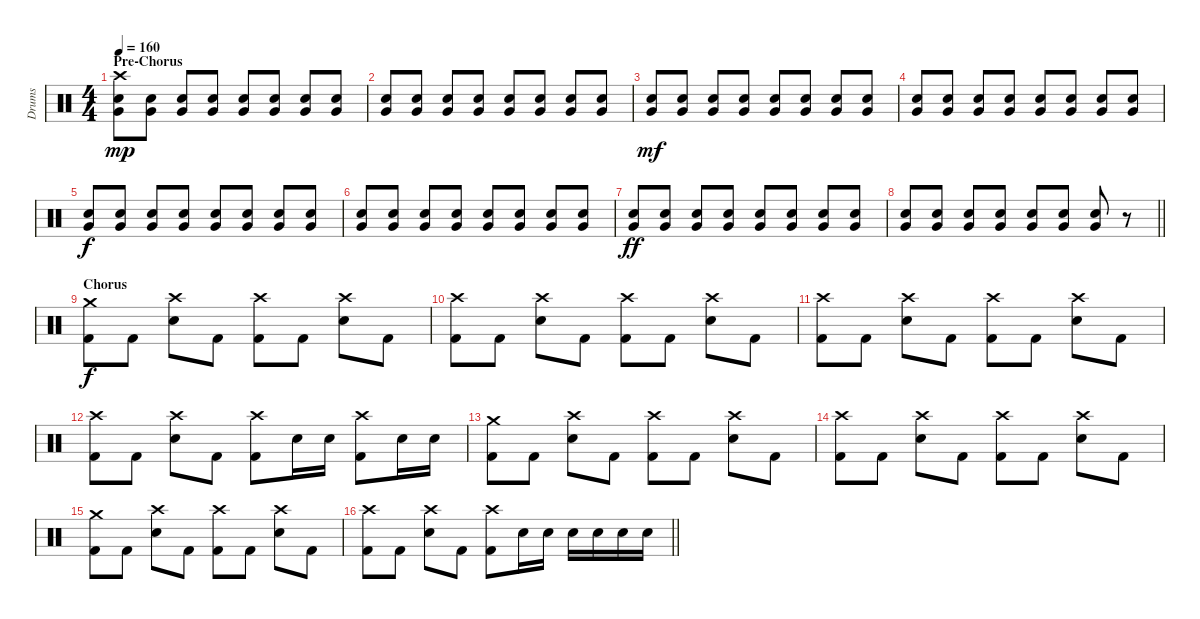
\track ("Drums" "Drums") {instrument percussion}
\staff {score}
\articulation defaults
\ts (4 4)
\section ("" "Pre-Chorus")
\tempo 160
\clef neutral
\ks c
("Crash high (hit)" "Electric Snare (hit)" "Very Low Tom (hit)").8{dy mp} ("Electric Snare (hit)" "Very Low Tom (hit)").8 ("Electric Snare (hit)" "Very Low Tom (hit)").8 ("Electric Snare (hit)" "Very Low Tom (hit)").8 ("Electric Snare (hit)" "Very Low Tom (hit)").8 ("Electric Snare (hit)" "Very Low Tom (hit)").8 ("Electric Snare (hit)" "Very Low Tom (hit)").8 ("Electric Snare (hit)" "Very Low Tom (hit)").8 |
("Electric Snare (hit)" "Very Low Tom (hit)").8 ("Electric Snare (hit)" "Very Low Tom (hit)").8 ("Electric Snare (hit)" "Very Low Tom (hit)").8 ("Electric Snare (hit)" "Very Low Tom (hit)").8 ("Electric Snare (hit)" "Very Low Tom (hit)").8 ("Electric Snare (hit)" "Very Low Tom (hit)").8 ("Electric Snare (hit)" "Very Low Tom (hit)").8 ("Electric Snare (hit)" "Very Low Tom (hit)").8 |
("Electric Snare (hit)" "Very Low Tom (hit)").8{dy mf} ("Electric Snare (hit)" "Very Low Tom (hit)").8 ("Electric Snare (hit)" "Very Low Tom (hit)").8 ("Electric Snare (hit)" "Very Low Tom (hit)").8 ("Electric Snare (hit)" "Very Low Tom (hit)").8 ("Electric Snare (hit)" "Very Low Tom (hit)").8 ("Electric Snare (hit)" "Very Low Tom (hit)").8 ("Electric Snare (hit)" "Very Low Tom (hit)").8 |
("Electric Snare (hit)" "Very Low Tom (hit)").8 ("Electric Snare (hit)" "Very Low Tom (hit)").8 ("Electric Snare (hit)" "Very Low Tom (hit)").8 ("Electric Snare (hit)" "Very Low Tom (hit)").8 ("Electric Snare (hit)" "Very Low Tom (hit)").8 ("Electric Snare (hit)" "Very Low Tom (hit)").8 ("Electric Snare (hit)" "Very Low Tom (hit)").8 ("Electric Snare (hit)" "Very Low Tom (hit)").8 |
("Electric Snare (hit)" "Very Low Tom (hit)").8{dy f} ("Electric Snare (hit)" "Very Low Tom (hit)").8 ("Electric Snare (hit)" "Very Low Tom (hit)").8 ("Electric Snare (hit)" "Very Low Tom (hit)").8 ("Electric Snare (hit)" "Very Low Tom (hit)").8 ("Electric Snare (hit)" "Very Low Tom (hit)").8 ("Electric Snare (hit)" "Very Low Tom (hit)").8 ("Electric Snare (hit)" "Very Low Tom (hit)").8 |
("Electric Snare (hit)" "Very Low Tom (hit)").8 ("Electric Snare (hit)" "Very Low Tom (hit)").8 ("Electric Snare (hit)" "Very Low Tom (hit)").8 ("Electric Snare (hit)" "Very Low Tom (hit)").8 ("Electric Snare (hit)" "Very Low Tom (hit)").8 ("Electric Snare (hit)" "Very Low Tom (hit)").8 ("Electric Snare (hit)" "Very Low Tom (hit)").8 ("Electric Snare (hit)" "Very Low Tom (hit)").8 |
("Electric Snare (hit)" "Very Low Tom (hit)").8{dy ff} ("Electric Snare (hit)" "Very Low Tom (hit)").8 ("Electric Snare (hit)" "Very Low Tom (hit)").8 ("Electric Snare (hit)" "Very Low Tom (hit)").8 ("Electric Snare (hit)" "Very Low Tom (hit)").8 ("Electric Snare (hit)" "Very Low Tom (hit)").8 ("Electric Snare (hit)" "Very Low Tom (hit)").8 ("Electric Snare (hit)" "Very Low Tom (hit)").8 |
\barLineRight lightlight
("Electric Snare (hit)" "Very Low Tom (hit)").8 ("Electric Snare (hit)" "Very Low Tom (hit)").8 ("Electric Snare (hit)" "Very Low Tom (hit)").8 ("Electric Snare (hit)" "Very Low Tom (hit)").8 ("Electric Snare (hit)" "Very Low Tom (hit)").8 ("Electric Snare (hit)" "Very Low Tom (hit)").8 ("Electric Snare (hit)" "Very Low Tom (hit)").8 r.8 |
\section ("" "Chorus")
("Crash medium (hit)" "Kick (hit) 2").8{dy f} "Kick (hit) 2".8 ("Crash high (hit)" "Electric Snare (hit)").8 "Kick (hit) 2".8 ("Crash high (hit)" "Kick (hit) 2").8 "Kick (hit) 2".8 ("Crash high (hit)" "Electric Snare (hit)").8 "Kick (hit) 2".8 |
("Crash high (hit)" "Kick (hit) 2").8 "Kick (hit) 2".8 ("Crash high (hit)" "Electric Snare (hit)").8 "Kick (hit) 2".8 ("Crash high (hit)" "Kick (hit) 2").8 "Kick (hit) 2".8 ("Crash high (hit)" "Electric Snare (hit)").8 "Kick (hit) 2".8 |
("Crash high (hit)" "Kick (hit) 2").8 "Kick (hit) 2".8 ("Crash high (hit)" "Electric Snare (hit)").8 "Kick (hit) 2".8 ("Crash high (hit)" "Kick (hit) 2").8 "Kick (hit) 2".8 ("Crash high (hit)" "Electric Snare (hit)").8 "Kick (hit) 2".8 |
("Crash high (hit)" "Kick (hit) 2").8 "Kick (hit) 2".8 ("Crash high (hit)" "Electric Snare (hit)").8 "Kick (hit) 2".8 ("Crash high (hit)" "Kick (hit) 2").8 "Electric Snare (hit)".16 "Electric Snare (hit)".16 ("Crash high (hit)" "Kick (hit) 2").8 "Electric Snare (hit)".16 "Electric Snare (hit)".16 |
("Crash medium (hit)" "Kick (hit) 2").8 "Kick (hit) 2".8 ("Crash high (hit)" "Electric Snare (hit)").8 "Kick (hit) 2".8 ("Crash high (hit)" "Kick (hit) 2").8 "Kick (hit) 2".8 ("Crash high (hit)" "Electric Snare (hit)").8 "Kick (hit) 2".8 |
("Crash high (hit)" "Kick (hit) 2").8 "Kick (hit) 2".8 ("Crash high (hit)" "Electric Snare (hit)").8 "Kick (hit) 2".8 ("Crash high (hit)" "Kick (hit) 2").8 "Kick (hit) 2".8 ("Crash high (hit)" "Electric Snare (hit)").8 "Kick (hit) 2".8 |
("Crash medium (hit)" "Kick (hit) 2").8 "Kick (hit) 2".8 ("Crash high (hit)" "Electric Snare (hit)").8 "Kick (hit) 2".8 ("Crash high (hit)" "Kick (hit) 2").8 "Kick (hit) 2".8 ("Crash high (hit)" "Electric Snare (hit)").8 "Kick (hit) 2".8 |
\barLineRight lightlight
("Crash high (hit)" "Kick (hit) 2").8 "Kick (hit) 2".8 ("Crash high (hit)" "Electric Snare (hit)").8 "Kick (hit) 2".8 ("Crash high (hit)" "Kick (hit) 2").8 "Electric Snare (hit)".16 "Electric Snare (hit)".16 "Electric Snare (hit)".16 "Electric Snare (hit)".16 "Electric Snare (hit)".16 "Electric Snare (hit)".16
